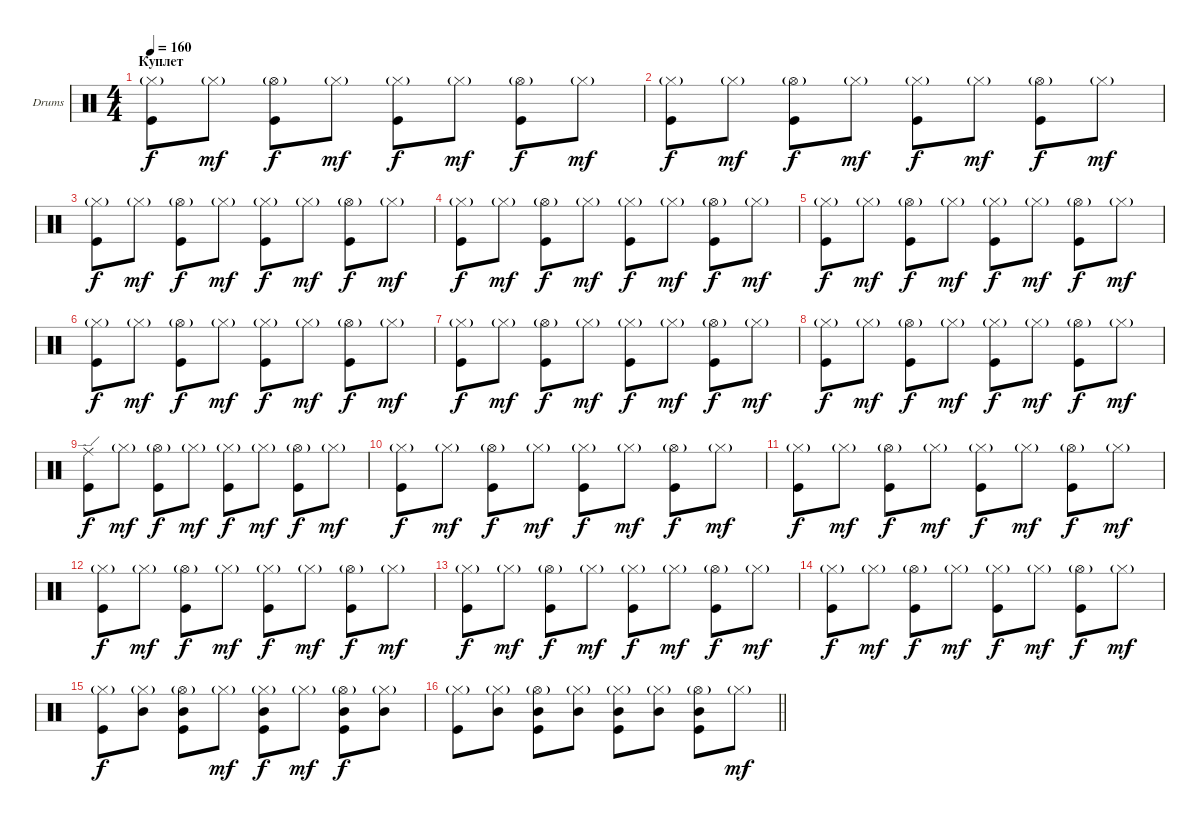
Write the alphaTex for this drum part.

\bracketExtendMode groupsimilarinstruments
\firstSystemTrackNameOrientation horizontal
\otherSystemsTrackNameOrientation horizontal
\track ("Ударные" "Drums") {instrument percussion}
\staff {score}
\articulation defaults
\ts (4 4)
\section ("" "Куплет")
\tempo 160
\clef neutral
\ks c
("Hi-Hat (closed)"{g} "Kick (hit)").8{dy f} "Hi-Hat (closed)"{g}.8{dy mf} ("Hi-Hat (open)"{g} "Kick (hit)").8{dy f} "Hi-Hat (closed)"{g}.8{dy mf} ("Hi-Hat (closed)"{g} "Kick (hit)").8{dy f} "Hi-Hat (closed)"{g}.8{dy mf} ("Hi-Hat (open)"{g} "Kick (hit)").8{dy f} "Hi-Hat (closed)"{g}.8{dy mf} |
("Hi-Hat (closed)"{g} "Kick (hit)").8{dy f} "Hi-Hat (closed)"{g}.8{dy mf} ("Hi-Hat (open)"{g} "Kick (hit)").8{dy f} "Hi-Hat (closed)"{g}.8{dy mf} ("Hi-Hat (closed)"{g} "Kick (hit)").8{dy f} "Hi-Hat (closed)"{g}.8{dy mf} ("Hi-Hat (open)"{g} "Kick (hit)").8{dy f} "Hi-Hat (closed)"{g}.8{dy mf} |
("Hi-Hat (closed)"{g} "Kick (hit)").8{dy f} "Hi-Hat (closed)"{g}.8{dy mf} ("Hi-Hat (open)"{g} "Kick (hit)").8{dy f} "Hi-Hat (closed)"{g}.8{dy mf} ("Hi-Hat (closed)"{g} "Kick (hit)").8{dy f} "Hi-Hat (closed)"{g}.8{dy mf} ("Hi-Hat (open)"{g} "Kick (hit)").8{dy f} "Hi-Hat (closed)"{g}.8{dy mf} |
("Hi-Hat (closed)"{g} "Kick (hit)").8{dy f} "Hi-Hat (closed)"{g}.8{dy mf} ("Hi-Hat (open)"{g} "Kick (hit)").8{dy f} "Hi-Hat (closed)"{g}.8{dy mf} ("Hi-Hat (closed)"{g} "Kick (hit)").8{dy f} "Hi-Hat (closed)"{g}.8{dy mf} ("Hi-Hat (open)"{g} "Kick (hit)").8{dy f} "Hi-Hat (closed)"{g}.8{dy mf} |
("Hi-Hat (closed)"{g} "Kick (hit)").8{dy f} "Hi-Hat (closed)"{g}.8{dy mf} ("Hi-Hat (open)"{g} "Kick (hit)").8{dy f} "Hi-Hat (closed)"{g}.8{dy mf} ("Hi-Hat (closed)"{g} "Kick (hit)").8{dy f} "Hi-Hat (closed)"{g}.8{dy mf} ("Hi-Hat (open)"{g} "Kick (hit)").8{dy f} "Hi-Hat (closed)"{g}.8{dy mf} |
("Hi-Hat (closed)"{g} "Kick (hit)").8{dy f} "Hi-Hat (closed)"{g}.8{dy mf} ("Hi-Hat (open)"{g} "Kick (hit)").8{dy f} "Hi-Hat (closed)"{g}.8{dy mf} ("Hi-Hat (closed)"{g} "Kick (hit)").8{dy f} "Hi-Hat (closed)"{g}.8{dy mf} ("Hi-Hat (open)"{g} "Kick (hit)").8{dy f} "Hi-Hat (closed)"{g}.8{dy mf} |
("Hi-Hat (closed)"{g} "Kick (hit)").8{dy f} "Hi-Hat (closed)"{g}.8{dy mf} ("Hi-Hat (open)"{g} "Kick (hit)").8{dy f} "Hi-Hat (closed)"{g}.8{dy mf} ("Hi-Hat (closed)"{g} "Kick (hit)").8{dy f} "Hi-Hat (closed)"{g}.8{dy mf} ("Hi-Hat (open)"{g} "Kick (hit)").8{dy f} "Hi-Hat (closed)"{g}.8{dy mf} |
("Hi-Hat (closed)"{g} "Kick (hit)").8{dy f} "Hi-Hat (closed)"{g}.8{dy mf} ("Hi-Hat (open)"{g} "Kick (hit)").8{dy f} "Hi-Hat (closed)"{g}.8{dy mf} ("Hi-Hat (closed)"{g} "Kick (hit)").8{dy f} "Hi-Hat (closed)"{g}.8{dy mf} ("Hi-Hat (open)"{g} "Kick (hit)").8{dy f} "Hi-Hat (closed)"{g}.8{dy mf} |
("Ride (edge)" "Kick (hit)").8{dy f} "Hi-Hat (closed)"{g}.8{dy mf} ("Hi-Hat (open)"{g} "Kick (hit)").8{dy f} "Hi-Hat (closed)"{g}.8{dy mf} ("Hi-Hat (closed)"{g} "Kick (hit)").8{dy f} "Hi-Hat (closed)"{g}.8{dy mf} ("Hi-Hat (open)"{g} "Kick (hit)").8{dy f} "Hi-Hat (closed)"{g}.8{dy mf} |
("Hi-Hat (closed)"{g} "Kick (hit)").8{dy f} "Hi-Hat (closed)"{g}.8{dy mf} ("Hi-Hat (open)"{g} "Kick (hit)").8{dy f} "Hi-Hat (closed)"{g}.8{dy mf} ("Hi-Hat (closed)"{g} "Kick (hit)").8{dy f} "Hi-Hat (closed)"{g}.8{dy mf} ("Hi-Hat (open)"{g} "Kick (hit)").8{dy f} "Hi-Hat (closed)"{g}.8{dy mf} |
("Hi-Hat (closed)"{g} "Kick (hit)").8{dy f} "Hi-Hat (closed)"{g}.8{dy mf} ("Hi-Hat (open)"{g} "Kick (hit)").8{dy f} "Hi-Hat (closed)"{g}.8{dy mf} ("Hi-Hat (closed)"{g} "Kick (hit)").8{dy f} "Hi-Hat (closed)"{g}.8{dy mf} ("Hi-Hat (open)"{g} "Kick (hit)").8{dy f} "Hi-Hat (closed)"{g}.8{dy mf} |
("Hi-Hat (closed)"{g} "Kick (hit)").8{dy f} "Hi-Hat (closed)"{g}.8{dy mf} ("Hi-Hat (open)"{g} "Kick (hit)").8{dy f} "Hi-Hat (closed)"{g}.8{dy mf} ("Hi-Hat (closed)"{g} "Kick (hit)").8{dy f} "Hi-Hat (closed)"{g}.8{dy mf} ("Hi-Hat (open)"{g} "Kick (hit)").8{dy f} "Hi-Hat (closed)"{g}.8{dy mf} |
("Hi-Hat (closed)"{g} "Kick (hit)").8{dy f} "Hi-Hat (closed)"{g}.8{dy mf} ("Hi-Hat (open)"{g} "Kick (hit)").8{dy f} "Hi-Hat (closed)"{g}.8{dy mf} ("Hi-Hat (closed)"{g} "Kick (hit)").8{dy f} "Hi-Hat (closed)"{g}.8{dy mf} ("Hi-Hat (open)"{g} "Kick (hit)").8{dy f} "Hi-Hat (closed)"{g}.8{dy mf} |
("Hi-Hat (closed)"{g} "Kick (hit)").8{dy f} "Hi-Hat (closed)"{g}.8{dy mf} ("Hi-Hat (open)"{g} "Kick (hit)").8{dy f} "Hi-Hat (closed)"{g}.8{dy mf} ("Hi-Hat (closed)"{g} "Kick (hit)").8{dy f} "Hi-Hat (closed)"{g}.8{dy mf} ("Hi-Hat (open)"{g} "Kick (hit)").8{dy f} "Hi-Hat (closed)"{g}.8{dy mf} |
("Hi-Hat (closed)"{g} "Kick (hit)").8{dy f} ("Hi-Hat (closed)"{g} "Mid Tom (hit)").8 ("Hi-Hat (open)"{g} "Mid Tom (hit)" "Kick (hit)").8 "Hi-Hat (closed)"{g}.8{dy mf} ("Hi-Hat (closed)"{g} "Mid Tom (hit)" "Kick (hit)").8{dy f} "Hi-Hat (closed)"{g}.8{dy mf} ("Hi-Hat (open)"{g} "Mid Tom (hit)" "Kick (hit)").8{dy f} ("Hi-Hat (closed)"{g} "Mid Tom (hit)").8 |
\barLineRight lightlight
("Hi-Hat (closed)"{g} "Kick (hit)").8 ("Hi-Hat (closed)"{g} "Mid Tom (hit)").8 ("Hi-Hat (open)"{g} "Mid Tom (hit)" "Kick (hit)").8 ("Hi-Hat (closed)"{g} "Mid Tom (hit)").8 ("Hi-Hat (closed)"{g} "Mid Tom (hit)" "Kick (hit)").8 ("Hi-Hat (closed)"{g} "Mid Tom (hit)").8 ("Hi-Hat (open)"{g} "Mid Tom (hit)" "Kick (hit)").8 "Hi-Hat (closed)"{g}.8{dy mf}
